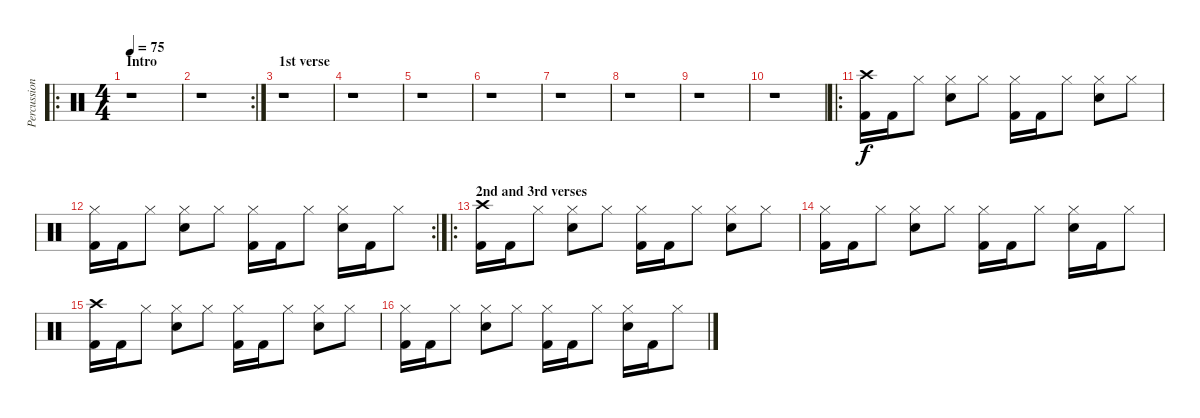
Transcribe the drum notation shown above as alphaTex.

\track ("Percussion" "Percussion") {instrument percussion}
\staff {score}
\articulation defaults
\ro
\ts (4 4)
\section ("" "Intro")
\tempo 75
\clef neutral
\ks c
r.1{dy f} |
\rc 2
r.1 |
\section ("" "1st verse")
r.1 |
r.1 |
r.1 |
r.1 |
r.1 |
r.1 |
r.1 |
r.1 |
\ro
("Crash high (hit)" "Kick (hit) 2").16 "Kick (hit) 2".16 "Hi-Hat (closed)".8 ("Hi-Hat (closed)" "Electric Snare (hit)").8 "Hi-Hat (closed)".8 ("Hi-Hat (closed)" "Kick (hit) 2").16 "Kick (hit) 2".16 "Hi-Hat (closed)".8 ("Hi-Hat (closed)" "Electric Snare (hit)").8 "Hi-Hat (closed)".8 |
\rc 2
("Hi-Hat (closed)" "Kick (hit) 2").16 "Kick (hit) 2".16 "Hi-Hat (closed)".8 ("Hi-Hat (closed)" "Electric Snare (hit)").8 "Hi-Hat (closed)".8 ("Hi-Hat (closed)" "Kick (hit) 2").16 "Kick (hit) 2".16 "Hi-Hat (closed)".8 ("Hi-Hat (closed)" "Electric Snare (hit)").16 "Kick (hit) 2".16 "Hi-Hat (closed)".8 |
\ro
\section ("" "2nd and 3rd verses")
("Crash high (hit)" "Kick (hit) 2").16 "Kick (hit) 2".16 "Hi-Hat (closed)".8 ("Hi-Hat (closed)" "Electric Snare (hit)").8 "Hi-Hat (closed)".8 ("Hi-Hat (closed)" "Kick (hit) 2").16 "Kick (hit) 2".16 "Hi-Hat (closed)".8 ("Hi-Hat (closed)" "Electric Snare (hit)").8 "Hi-Hat (closed)".8 |
("Hi-Hat (closed)" "Kick (hit) 2").16 "Kick (hit) 2".16 "Hi-Hat (closed)".8 ("Hi-Hat (closed)" "Electric Snare (hit)").8 "Hi-Hat (closed)".8 ("Hi-Hat (closed)" "Kick (hit) 2").16 "Kick (hit) 2".16 "Hi-Hat (closed)".8 ("Hi-Hat (closed)" "Electric Snare (hit)").16 "Kick (hit) 2".16 "Hi-Hat (closed)".8 |
("Crash high (hit)" "Kick (hit) 2").16 "Kick (hit) 2".16 "Hi-Hat (closed)".8 ("Hi-Hat (closed)" "Electric Snare (hit)").8 "Hi-Hat (closed)".8 ("Hi-Hat (closed)" "Kick (hit) 2").16 "Kick (hit) 2".16 "Hi-Hat (closed)".8 ("Hi-Hat (closed)" "Electric Snare (hit)").8 "Hi-Hat (closed)".8 |
("Hi-Hat (closed)" "Kick (hit) 2").16 "Kick (hit) 2".16 "Hi-Hat (closed)".8 ("Hi-Hat (closed)" "Electric Snare (hit)").8 "Hi-Hat (closed)".8 ("Hi-Hat (closed)" "Kick (hit) 2").16 "Kick (hit) 2".16 "Hi-Hat (closed)".8 ("Hi-Hat (closed)" "Electric Snare (hit)").16 "Kick (hit) 2".16 "Hi-Hat (closed)".8
